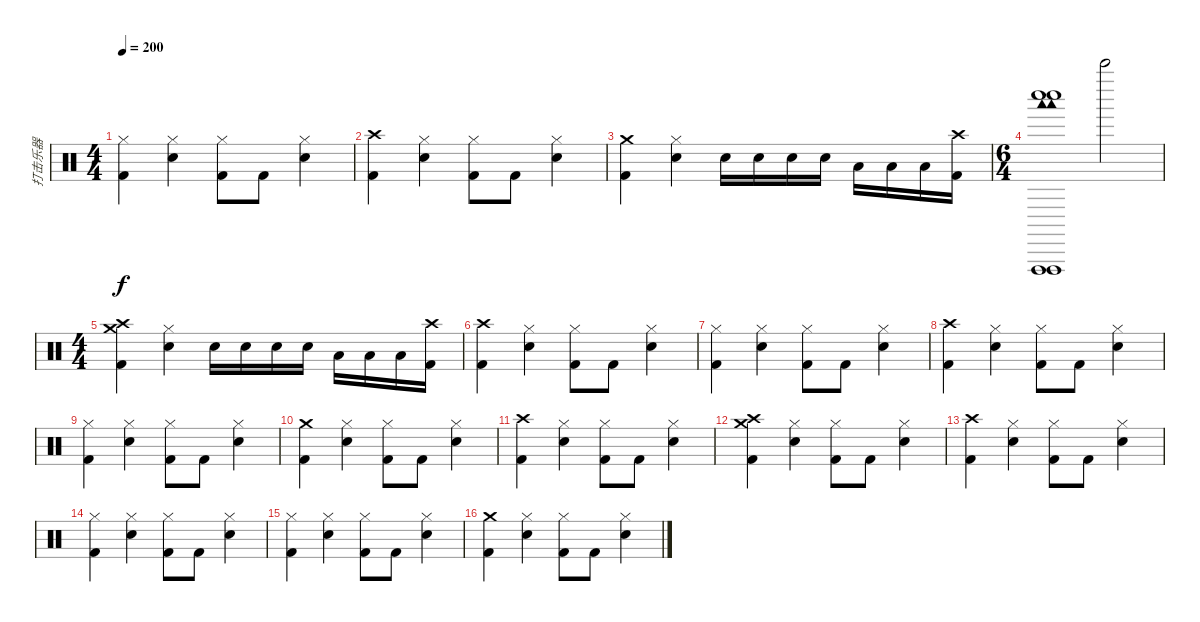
\track ("打击乐器" "打击乐器") {instrument percussion}
\staff {score}
\articulation defaults
\ts (4 4)
\tempo 200
\clef neutral
\ks c
("Hi-Hat (closed)" "Kick (hit) 2").4{dy f} ("Hi-Hat (closed)" "Snare (hit) 2").4 ("Hi-Hat (closed)" "Kick (hit) 2").8 "Kick (hit) 2".8 ("Hi-Hat (closed)" "Snare (hit) 2").4 |
("Crash high (hit)" "Kick (hit) 2").4 ("Hi-Hat (closed)" "Snare (hit) 2").4 ("Hi-Hat (closed)" "Kick (hit) 2").8 "Kick (hit) 2".8 ("Hi-Hat (closed)" "Snare (hit) 2").4 |
("Crash medium (hit)" "Kick (hit) 2").4 ("Hi-Hat (closed)" "Snare (hit) 2").4 "Snare (hit) 2".16 "Snare (hit) 2".16 "Snare (hit) 2".16 "Snare (hit) 2".16 "Low Floor Tom (hit)".16 "Low Floor Tom (hit)".16 "Low Tom (hit)".16 ("Crash high (hit)" "Kick (hit) 2").16 |
\ts (6 4)
("Vibraslap (hit)" "Whistle low (hit)" "Whistle low (hit)" "Vibraslap (hit)" "Woodblock low (hit)" "Woodblock low (hit)").1{bd 240} "Bell Tree (hit)".2 |
\ts (4 4)
("Crash medium (hit)" "Crash high (hit)" "Kick (hit) 2").4 ("Hi-Hat (closed)" "Snare (hit) 2").4 "Snare (hit) 2".16 "Snare (hit) 2".16 "Snare (hit) 2".16 "Snare (hit) 2".16 "Low Floor Tom (hit)".16 "Low Floor Tom (hit)".16 "Low Tom (hit)".16 ("Crash high (hit)" "Kick (hit) 2").16 |
("Crash high (hit)" "Kick (hit) 2").4 ("Hi-Hat (closed)" "Snare (hit) 2").4 ("Hi-Hat (closed)" "Kick (hit) 2").8 "Kick (hit) 2".8 ("Hi-Hat (closed)" "Snare (hit) 2").4 |
("Hi-Hat (closed)" "Kick (hit) 2").4 ("Hi-Hat (closed)" "Snare (hit) 2").4 ("Hi-Hat (closed)" "Kick (hit) 2").8 "Kick (hit) 2".8 ("Hi-Hat (closed)" "Snare (hit) 2").4 |
("Crash high (hit)" "Kick (hit) 2").4 ("Hi-Hat (closed)" "Snare (hit) 2").4 ("Hi-Hat (closed)" "Kick (hit) 2").8 "Kick (hit) 2".8 ("Hi-Hat (closed)" "Snare (hit) 2").4 |
("Hi-Hat (closed)" "Kick (hit) 2").4 ("Hi-Hat (closed)" "Snare (hit) 2").4 ("Hi-Hat (closed)" "Kick (hit) 2").8 "Kick (hit) 2".8 ("Hi-Hat (closed)" "Snare (hit) 2").4 |
("Crash medium (hit)" "Kick (hit) 2").4 ("Hi-Hat (closed)" "Snare (hit) 2").4 ("Hi-Hat (closed)" "Kick (hit) 2").8 "Kick (hit) 2".8 ("Hi-Hat (closed)" "Snare (hit) 2").4 |
("Crash high (hit)" "Kick (hit) 2").4 ("Hi-Hat (closed)" "Snare (hit) 2").4 ("Hi-Hat (closed)" "Kick (hit) 2").8 "Kick (hit) 2".8 ("Hi-Hat (closed)" "Snare (hit) 2").4 |
("Crash medium (hit)" "Crash high (hit)" "Kick (hit) 2").4 ("Hi-Hat (closed)" "Snare (hit) 2").4 ("Hi-Hat (closed)" "Kick (hit) 2").8 "Kick (hit) 2".8 ("Hi-Hat (closed)" "Snare (hit) 2").4 |
("Crash high (hit)" "Kick (hit) 2").4 ("Hi-Hat (closed)" "Snare (hit) 2").4 ("Hi-Hat (closed)" "Kick (hit) 2").8 "Kick (hit) 2".8 ("Hi-Hat (closed)" "Snare (hit) 2").4 |
("Hi-Hat (closed)" "Kick (hit) 2").4 ("Hi-Hat (closed)" "Snare (hit) 2").4 ("Hi-Hat (closed)" "Kick (hit) 2").8 "Kick (hit) 2".8 ("Hi-Hat (closed)" "Snare (hit) 2").4 |
("Hi-Hat (closed)" "Kick (hit) 2").4 ("Hi-Hat (closed)" "Snare (hit) 2").4 ("Hi-Hat (closed)" "Kick (hit) 2").8 "Kick (hit) 2".8 ("Hi-Hat (closed)" "Snare (hit) 2").4 |
("Crash medium (hit)" "Kick (hit) 2").4 ("Hi-Hat (closed)" "Snare (hit) 2").4 ("Hi-Hat (closed)" "Kick (hit) 2").8 "Kick (hit) 2".8 ("Hi-Hat (closed)" "Snare (hit) 2").4
